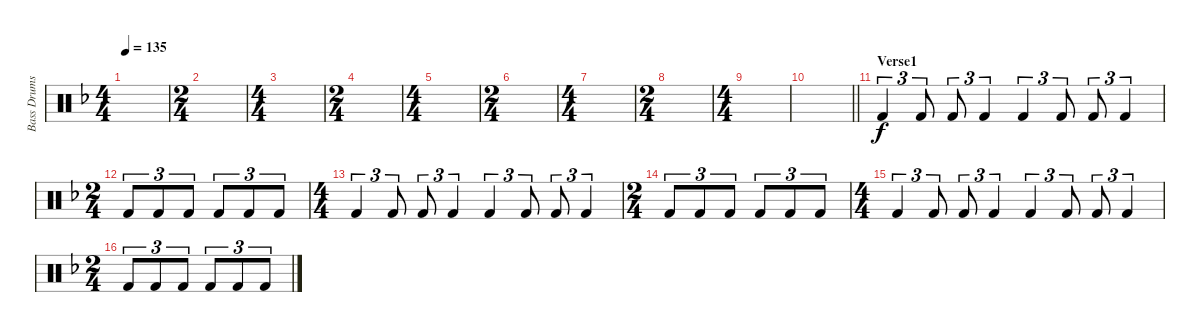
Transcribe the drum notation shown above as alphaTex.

\track ("Bass Drums" "Bass Drums") {instrument percussion}
\staff {score}
\articulation defaults
\ts (4 4)
\tempo 135
\clef neutral
\ks dminor
|
\ts (2 4)
|
\ts (4 4)
|
\ts (2 4)
|
\ts (4 4)
|
\ts (2 4)
|
\ts (4 4)
|
\ts (2 4)
|
\ts (4 4)
|
\barLineRight lightlight
|
\section ("" "Verse1")
"Kick (hit) 2".4{tu (3 2)} "Kick (hit) 2".8{tu (3 2)} "Kick (hit) 2".8{tu (3 2)} "Kick (hit) 2".4{tu (3 2)} "Kick (hit) 2".4{tu (3 2)} "Kick (hit) 2".8{tu (3 2)} "Kick (hit) 2".8{tu (3 2)} "Kick (hit) 2".4{tu (3 2)} |
\ts (2 4)
"Kick (hit) 2".8{tu (3 2)} "Kick (hit) 2".8{tu (3 2)} "Kick (hit) 2".8{tu (3 2)} "Kick (hit) 2".8{tu (3 2)} "Kick (hit) 2".8{tu (3 2)} "Kick (hit) 2".8{tu (3 2)} |
\ts (4 4)
"Kick (hit) 2".4{tu (3 2)} "Kick (hit) 2".8{tu (3 2)} "Kick (hit) 2".8{tu (3 2)} "Kick (hit) 2".4{tu (3 2)} "Kick (hit) 2".4{tu (3 2)} "Kick (hit) 2".8{tu (3 2)} "Kick (hit) 2".8{tu (3 2)} "Kick (hit) 2".4{tu (3 2)} |
\ts (2 4)
"Kick (hit) 2".8{tu (3 2)} "Kick (hit) 2".8{tu (3 2)} "Kick (hit) 2".8{tu (3 2)} "Kick (hit) 2".8{tu (3 2)} "Kick (hit) 2".8{tu (3 2)} "Kick (hit) 2".8{tu (3 2)} |
\ts (4 4)
"Kick (hit) 2".4{tu (3 2)} "Kick (hit) 2".8{tu (3 2)} "Kick (hit) 2".8{tu (3 2)} "Kick (hit) 2".4{tu (3 2)} "Kick (hit) 2".4{tu (3 2)} "Kick (hit) 2".8{tu (3 2)} "Kick (hit) 2".8{tu (3 2)} "Kick (hit) 2".4{tu (3 2)} |
\ts (2 4)
"Kick (hit) 2".8{tu (3 2)} "Kick (hit) 2".8{tu (3 2)} "Kick (hit) 2".8{tu (3 2)} "Kick (hit) 2".8{tu (3 2)} "Kick (hit) 2".8{tu (3 2)} "Kick (hit) 2".8{tu (3 2)}
